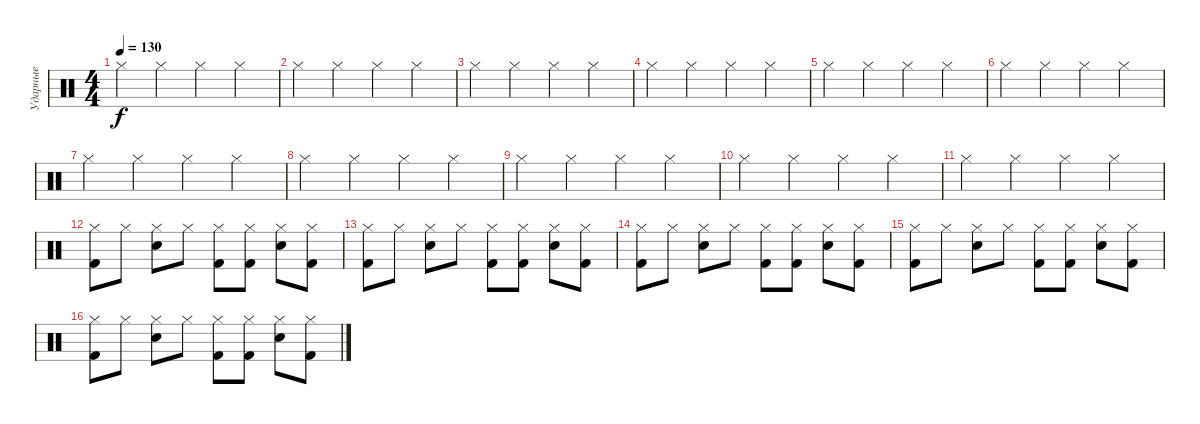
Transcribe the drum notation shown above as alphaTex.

\track ("Ударные" "Ударные") {instrument percussion}
\staff {score}
\articulation defaults
\ts (4 4)
\tempo 130
\clef neutral
\ks c "Hi-Hat (closed)".4{dy f} "Hi-Hat (closed)".4 "Hi-Hat (closed)".4 "Hi-Hat (closed)".4
|
"Hi-Hat (closed)".4 "Hi-Hat (closed)".4 "Hi-Hat (closed)".4 "Hi-Hat (closed)".4 |
"Hi-Hat (closed)".4 "Hi-Hat (closed)".4 "Hi-Hat (closed)".4 "Hi-Hat (closed)".4 |
"Hi-Hat (closed)".4 "Hi-Hat (closed)".4 "Hi-Hat (closed)".4 "Hi-Hat (closed)".4 |
"Hi-Hat (closed)".4 "Hi-Hat (closed)".4 "Hi-Hat (closed)".4 "Hi-Hat (closed)".4 |
"Hi-Hat (closed)".4 "Hi-Hat (closed)".4 "Hi-Hat (closed)".4 "Hi-Hat (closed)".4 |
"Hi-Hat (closed)".4 "Hi-Hat (closed)".4 "Hi-Hat (closed)".4 "Hi-Hat (closed)".4 |
"Hi-Hat (closed)".4 "Hi-Hat (closed)".4 "Hi-Hat (closed)".4 "Hi-Hat (closed)".4 |
"Hi-Hat (closed)".4 "Hi-Hat (closed)".4 "Hi-Hat (closed)".4 "Hi-Hat (closed)".4 |
"Hi-Hat (closed)".4 "Hi-Hat (closed)".4 "Hi-Hat (closed)".4 "Hi-Hat (closed)".4 |
"Hi-Hat (closed)".4 "Hi-Hat (closed)".4 "Hi-Hat (closed)".4 "Hi-Hat (closed)".4 |
("Hi-Hat (closed)" "Kick (hit) 2").8 "Hi-Hat (closed)".8 ("Hi-Hat (closed)" "Snare (hit) 2").8 "Hi-Hat (closed)".8 ("Hi-Hat (closed)" "Kick (hit) 2").8 ("Hi-Hat (closed)" "Kick (hit) 2").8 ("Hi-Hat (closed)" "Snare (hit) 2").8 ("Hi-Hat (closed)" "Kick (hit) 2").8 |
("Hi-Hat (closed)" "Kick (hit) 2").8 "Hi-Hat (closed)".8 ("Hi-Hat (closed)" "Snare (hit) 2").8 "Hi-Hat (closed)".8 ("Hi-Hat (closed)" "Kick (hit) 2").8 ("Hi-Hat (closed)" "Kick (hit) 2").8 ("Hi-Hat (closed)" "Snare (hit) 2").8 ("Hi-Hat (closed)" "Kick (hit) 2").8 |
("Hi-Hat (closed)" "Kick (hit) 2").8 "Hi-Hat (closed)".8 ("Hi-Hat (closed)" "Snare (hit) 2").8 "Hi-Hat (closed)".8 ("Hi-Hat (closed)" "Kick (hit) 2").8 ("Hi-Hat (closed)" "Kick (hit) 2").8 ("Hi-Hat (closed)" "Snare (hit) 2").8 ("Hi-Hat (closed)" "Kick (hit) 2").8 |
("Hi-Hat (closed)" "Kick (hit) 2").8 "Hi-Hat (closed)".8 ("Hi-Hat (closed)" "Snare (hit) 2").8 "Hi-Hat (closed)".8 ("Hi-Hat (closed)" "Kick (hit) 2").8 ("Hi-Hat (closed)" "Kick (hit) 2").8 ("Hi-Hat (closed)" "Snare (hit) 2").8 ("Hi-Hat (closed)" "Kick (hit) 2").8 |
("Hi-Hat (closed)" "Kick (hit) 2").8 "Hi-Hat (closed)".8 ("Hi-Hat (closed)" "Snare (hit) 2").8 "Hi-Hat (closed)".8 ("Hi-Hat (closed)" "Kick (hit) 2").8 ("Hi-Hat (closed)" "Kick (hit) 2").8 ("Hi-Hat (closed)" "Snare (hit) 2").8 ("Hi-Hat (closed)" "Kick (hit) 2").8
